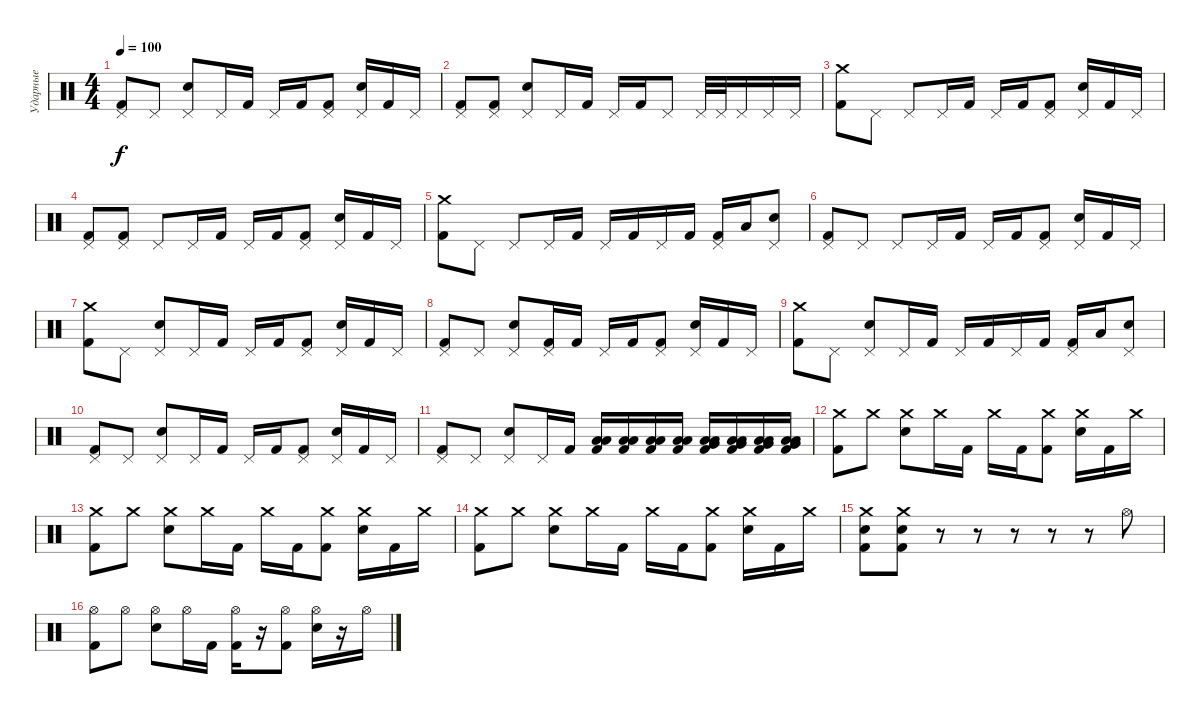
\track ("Ударные" "Ударные") {instrument percussion}
\staff {score}
\articulation defaults
\ts (4 4)
\tempo 100
\clef neutral
\ks c
("Pedal Hi-Hat (hit)" "Kick (hit) 2").8{dy f} "Pedal Hi-Hat (hit)".8 ("Pedal Hi-Hat (hit)" "Electric Snare (hit)").8 "Pedal Hi-Hat (hit)".16 "Kick (hit) 2".16 "Pedal Hi-Hat (hit)".16 "Kick (hit) 2".16 ("Pedal Hi-Hat (hit)" "Kick (hit) 2").8 ("Pedal Hi-Hat (hit)" "Electric Snare (hit)").16 "Kick (hit) 2".16 "Pedal Hi-Hat (hit)".16 |
("Pedal Hi-Hat (hit)" "Kick (hit) 2").8 ("Pedal Hi-Hat (hit)" "Kick (hit) 2").8 ("Pedal Hi-Hat (hit)" "Electric Snare (hit)").8 "Pedal Hi-Hat (hit)".16 "Kick (hit) 2".16 "Pedal Hi-Hat (hit)".16 "Kick (hit) 2".16 "Pedal Hi-Hat (hit)".8 "Pedal Hi-Hat (hit)".32 "Pedal Hi-Hat (hit)".32 "Pedal Hi-Hat (hit)".16 "Pedal Hi-Hat (hit)".16 "Pedal Hi-Hat (hit)".16 |
("Crash medium (hit)" "Kick (hit) 2").8 "Pedal Hi-Hat (hit)".8 "Pedal Hi-Hat (hit)".8 "Pedal Hi-Hat (hit)".16 "Kick (hit) 2".16 "Pedal Hi-Hat (hit)".16 "Kick (hit) 2".16 ("Pedal Hi-Hat (hit)" "Kick (hit) 2").8 ("Pedal Hi-Hat (hit)" "Electric Snare (hit)").16 "Kick (hit) 2".16 "Pedal Hi-Hat (hit)".16 |
("Pedal Hi-Hat (hit)" "Kick (hit) 2").8 ("Pedal Hi-Hat (hit)" "Kick (hit) 2").8 "Pedal Hi-Hat (hit)".8 "Pedal Hi-Hat (hit)".16 "Kick (hit) 2".16 "Pedal Hi-Hat (hit)".16 "Kick (hit) 2".16 ("Pedal Hi-Hat (hit)" "Kick (hit) 2").8 ("Pedal Hi-Hat (hit)" "Electric Snare (hit)").16 "Kick (hit) 2".16 "Pedal Hi-Hat (hit)".16 |
("Crash medium (hit)" "Kick (hit) 2").8 "Pedal Hi-Hat (hit)".8 "Pedal Hi-Hat (hit)".8 "Pedal Hi-Hat (hit)".16 "Kick (hit) 2".16 "Pedal Hi-Hat (hit)".16 "Kick (hit) 2".16 "Pedal Hi-Hat (hit)".16 "Kick (hit) 2".16 ("Pedal Hi-Hat (hit)" "Kick (hit) 2").16 "Low Floor Tom (hit)".16 ("Pedal Hi-Hat (hit)" "Electric Snare (hit)").8 |
("Pedal Hi-Hat (hit)" "Kick (hit) 2").8 "Pedal Hi-Hat (hit)".8 "Pedal Hi-Hat (hit)".8 "Pedal Hi-Hat (hit)".16 "Kick (hit) 2".16 "Pedal Hi-Hat (hit)".16 "Kick (hit) 2".16 ("Pedal Hi-Hat (hit)" "Kick (hit) 2").8 ("Pedal Hi-Hat (hit)" "Electric Snare (hit)").16 "Kick (hit) 2".16 "Pedal Hi-Hat (hit)".16 |
("Crash medium (hit)" "Kick (hit) 2").8 "Pedal Hi-Hat (hit)".8 ("Pedal Hi-Hat (hit)" "Electric Snare (hit)").8 "Pedal Hi-Hat (hit)".16 "Kick (hit) 2".16 "Pedal Hi-Hat (hit)".16 "Kick (hit) 2".16 ("Pedal Hi-Hat (hit)" "Kick (hit) 2").8 ("Pedal Hi-Hat (hit)" "Electric Snare (hit)").16 "Kick (hit) 2".16 "Pedal Hi-Hat (hit)".16 |
("Pedal Hi-Hat (hit)" "Kick (hit) 2").8 "Pedal Hi-Hat (hit)".8 ("Pedal Hi-Hat (hit)" "Electric Snare (hit)").8 ("Pedal Hi-Hat (hit)" "Kick (hit) 2").16 "Kick (hit) 2".16 "Pedal Hi-Hat (hit)".16 "Kick (hit) 2".16 ("Pedal Hi-Hat (hit)" "Kick (hit) 2").8 ("Pedal Hi-Hat (hit)" "Electric Snare (hit)").16 "Kick (hit) 2".16 "Pedal Hi-Hat (hit)".16 |
("Crash medium (hit)" "Kick (hit) 2").8 "Pedal Hi-Hat (hit)".8 ("Pedal Hi-Hat (hit)" "Electric Snare (hit)").8 "Pedal Hi-Hat (hit)".16 "Kick (hit) 2".16 "Pedal Hi-Hat (hit)".16 "Kick (hit) 2".16 "Pedal Hi-Hat (hit)".16 "Kick (hit) 2".16 ("Pedal Hi-Hat (hit)" "Kick (hit) 2").16 "Low Floor Tom (hit)".16 ("Pedal Hi-Hat (hit)" "Electric Snare (hit)").8 |
("Pedal Hi-Hat (hit)" "Kick (hit) 2").8 "Pedal Hi-Hat (hit)".8 ("Pedal Hi-Hat (hit)" "Electric Snare (hit)").8 "Pedal Hi-Hat (hit)".16 "Kick (hit) 2".16 "Pedal Hi-Hat (hit)".16 "Kick (hit) 2".16 ("Pedal Hi-Hat (hit)" "Kick (hit) 2").8 ("Pedal Hi-Hat (hit)" "Electric Snare (hit)").16 "Kick (hit) 2".16 "Pedal Hi-Hat (hit)".16 |
("Pedal Hi-Hat (hit)" "Kick (hit) 2").8 "Pedal Hi-Hat (hit)".8 ("Pedal Hi-Hat (hit)" "Electric Snare (hit)").8 "Pedal Hi-Hat (hit)".16 "Kick (hit) 2".16 ("Low Floor Tom (hit)" "Low Floor Tom (hit)" "Kick (hit) 2").16 ("Low Floor Tom (hit)" "Low Floor Tom (hit)" "Kick (hit) 2").16 ("Low Floor Tom (hit)" "Low Floor Tom (hit)" "Kick (hit) 2").16 ("Low Floor Tom (hit)" "Low Floor Tom (hit)" "Kick (hit) 2").16 ("Very Low Tom (hit)" "Low Floor Tom (hit)" "Low Floor Tom (hit)" "Kick (hit) 2").16 ("Very Low Tom (hit)" "Low Floor Tom (hit)" "Low Floor Tom (hit)" "Kick (hit) 2").16 ("Very Low Tom (hit)" "Low Floor Tom (hit)" "Low Floor Tom (hit)" "Kick (hit) 2").16 ("Very Low Tom (hit)" "Low Floor Tom (hit)" "Low Floor Tom (hit)" "Kick (hit) 2").16 |
("Crash medium (hit)" "Kick (hit) 2").8 "Crash medium (hit)".8 ("Crash medium (hit)" "Electric Snare (hit)").8 "Crash medium (hit)".16 "Kick (hit) 2".16 "Crash medium (hit)".16 "Kick (hit) 2".16 ("Crash medium (hit)" "Kick (hit) 2").8 ("Crash medium (hit)" "Electric Snare (hit)").16 "Kick (hit) 2".16 "Crash medium (hit)".16 |
("Crash medium (hit)" "Kick (hit) 2").8 "Crash medium (hit)".8 ("Crash medium (hit)" "Electric Snare (hit)").8 "Crash medium (hit)".16 "Kick (hit) 2".16 "Crash medium (hit)".16 "Kick (hit) 2".16 ("Crash medium (hit)" "Kick (hit) 2").8 ("Crash medium (hit)" "Electric Snare (hit)").16 "Kick (hit) 2".16 "Crash medium (hit)".16 |
("Crash medium (hit)" "Kick (hit) 2").8 "Crash medium (hit)".8 ("Crash medium (hit)" "Electric Snare (hit)").8 "Crash medium (hit)".16 "Kick (hit) 2".16 "Crash medium (hit)".16 "Kick (hit) 2".16 ("Crash medium (hit)" "Kick (hit) 2").8 ("Crash medium (hit)" "Electric Snare (hit)").16 "Kick (hit) 2".16 "Crash medium (hit)".16 |
("Crash medium (hit)" "Electric Snare (hit)" "Kick (hit) 2").8 ("Crash medium (hit)" "Electric Snare (hit)" "Kick (hit) 2").8 r.8 r.8 r.8 r.8 r.8 "Hi-Hat (open)".8 |
("Hi-Hat (open)" "Kick (hit) 2").8 "Hi-Hat (open)".8 ("Hi-Hat (open)" "Electric Snare (hit)").8 "Hi-Hat (open)".16 "Kick (hit) 2".16 ("Hi-Hat (open)" "Kick (hit) 2").16 r.16 ("Hi-Hat (open)" "Kick (hit) 2").8 ("Hi-Hat (open)" "Electric Snare (hit)").16 r.16 "Hi-Hat (open)".16
